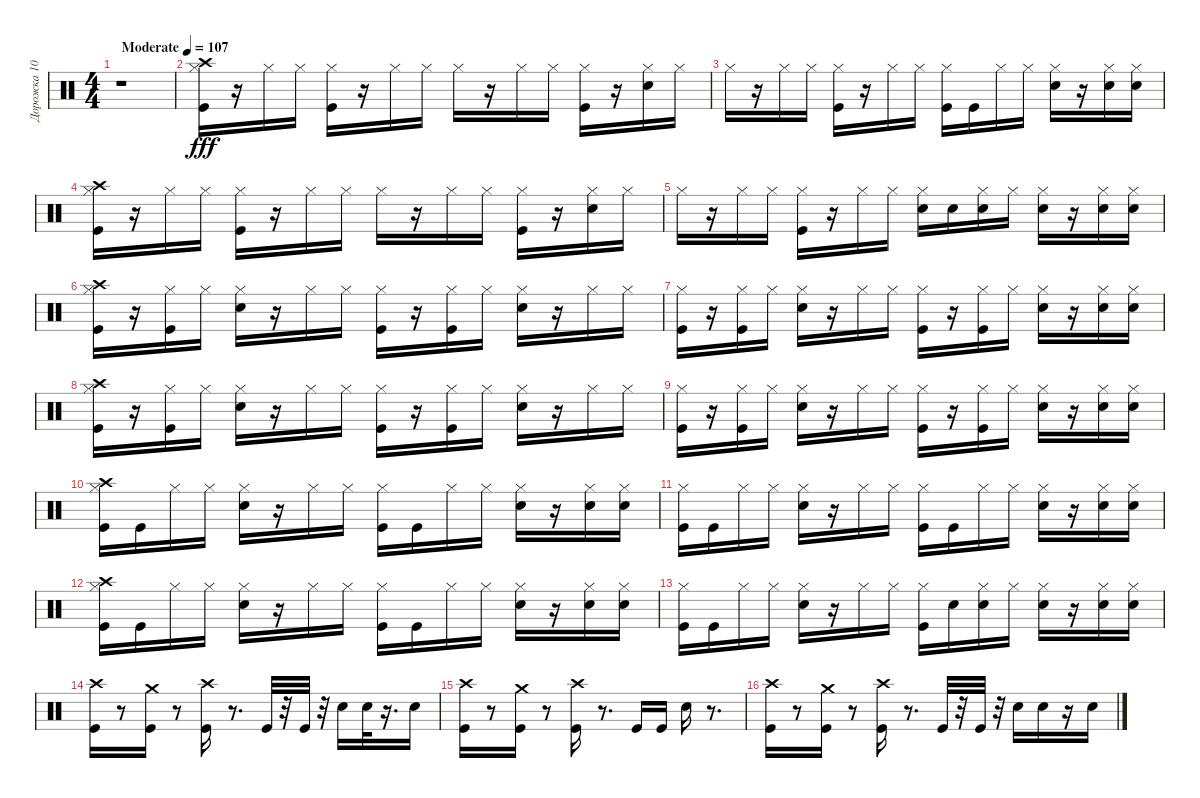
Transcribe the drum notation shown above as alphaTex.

\track ("Дорожка 10" "Дорожка 10") {instrument percussion}
\staff {score}
\articulation defaults
\ts (4 4)
\tempo (107 "Moderate")
\clef neutral
\ks c
r.1{dy fff} |
("Hi-Hat (closed)" "Crash high (hit)" "Kick (hit)").16 r.16 "Hi-Hat (closed)".16 "Hi-Hat (closed)".16 ("Kick (hit)" "Hi-Hat (closed)").16 r.16 "Hi-Hat (closed)".16 "Hi-Hat (closed)".16 "Hi-Hat (closed)".16 r.16 "Hi-Hat (closed)".16 "Hi-Hat (closed)".16 ("Hi-Hat (closed)" "Kick (hit)").16 r.16 ("Electric Snare (hit)" "Hi-Hat (closed)").16 "Hi-Hat (closed)".16 |
"Hi-Hat (closed)".16 r.16 "Hi-Hat (closed)".16 "Hi-Hat (closed)".16 ("Hi-Hat (closed)" "Kick (hit)").16 r.16 "Hi-Hat (closed)".16 "Hi-Hat (closed)".16 ("Hi-Hat (closed)" "Kick (hit)").16 "Kick (hit)".16 "Hi-Hat (closed)".16 "Hi-Hat (closed)".16 ("Electric Snare (hit)" "Hi-Hat (closed)").16 r.16 ("Electric Snare (hit)" "Hi-Hat (closed)").16 ("Hi-Hat (closed)" "Electric Snare (hit)").16 |
("Kick (hit)" "Hi-Hat (closed)" "Crash high (hit)").16 r.16 "Hi-Hat (closed)".16 "Hi-Hat (closed)".16 ("Kick (hit)" "Hi-Hat (closed)").16 r.16 "Hi-Hat (closed)".16 "Hi-Hat (closed)".16 "Hi-Hat (closed)".16 r.16 "Hi-Hat (closed)".16 "Hi-Hat (closed)".16 ("Kick (hit)" "Hi-Hat (closed)").16 r.16 ("Electric Snare (hit)" "Hi-Hat (closed)").16 "Hi-Hat (closed)".16 |
"Hi-Hat (closed)".16 r.16 "Hi-Hat (closed)".16 "Hi-Hat (closed)".16 ("Kick (hit)" "Hi-Hat (closed)").16 r.16 "Hi-Hat (closed)".16 "Hi-Hat (closed)".16 ("Hi-Hat (closed)" "Electric Snare (hit)").16 "Electric Snare (hit)".16 ("Hi-Hat (closed)" "Electric Snare (hit)").16 "Hi-Hat (closed)".16 ("Electric Snare (hit)" "Hi-Hat (closed)").16 r.16 ("Hi-Hat (closed)" "Electric Snare (hit)").16 ("Hi-Hat (closed)" "Electric Snare (hit)").16 |
("Kick (hit)" "Crash high (hit)" "Hi-Hat (closed)").16 r.16 ("Hi-Hat (closed)" "Kick (hit)").16 "Hi-Hat (closed)".16 ("Hi-Hat (closed)" "Electric Snare (hit)").16 r.16 "Hi-Hat (closed)".16 "Hi-Hat (closed)".16 ("Kick (hit)" "Hi-Hat (closed)").16 r.16 ("Hi-Hat (closed)" "Kick (hit)").16 "Hi-Hat (closed)".16 ("Electric Snare (hit)" "Hi-Hat (closed)").16 r.16 "Hi-Hat (closed)".16 "Hi-Hat (closed)".16 |
("Hi-Hat (closed)" "Kick (hit)").16 r.16 ("Kick (hit)" "Hi-Hat (closed)").16 "Hi-Hat (closed)".16 ("Electric Snare (hit)" "Hi-Hat (closed)").16 r.16 "Hi-Hat (closed)".16 "Hi-Hat (closed)".16 ("Hi-Hat (closed)" "Kick (hit)").16 r.16 ("Hi-Hat (closed)" "Kick (hit)").16 "Hi-Hat (closed)".16 ("Electric Snare (hit)" "Hi-Hat (closed)").16 r.16 ("Electric Snare (hit)" "Hi-Hat (closed)").16 ("Electric Snare (hit)" "Hi-Hat (closed)").16 |
("Kick (hit)" "Hi-Hat (closed)" "Crash high (hit)").16 r.16 ("Kick (hit)" "Hi-Hat (closed)").16 "Hi-Hat (closed)".16 ("Electric Snare (hit)" "Hi-Hat (closed)").16 r.16 "Hi-Hat (closed)".16 "Hi-Hat (closed)".16 ("Hi-Hat (closed)" "Kick (hit)").16 r.16 ("Hi-Hat (closed)" "Kick (hit)").16 "Hi-Hat (closed)".16 ("Hi-Hat (closed)" "Electric Snare (hit)").16 r.16 "Hi-Hat (closed)".16 "Hi-Hat (closed)".16 |
("Hi-Hat (closed)" "Kick (hit)").16 r.16 ("Kick (hit)" "Hi-Hat (closed)").16 "Hi-Hat (closed)".16 ("Hi-Hat (closed)" "Electric Snare (hit)").16 r.16 "Hi-Hat (closed)".16 "Hi-Hat (closed)".16 ("Kick (hit)" "Hi-Hat (closed)").16 r.16 ("Hi-Hat (closed)" "Kick (hit)").16 "Hi-Hat (closed)".16 ("Hi-Hat (closed)" "Electric Snare (hit)").16 r.16 ("Electric Snare (hit)" "Hi-Hat (closed)").16 ("Hi-Hat (closed)" "Electric Snare (hit)").16 |
("Hi-Hat (closed)" "Kick (hit)" "Crash high (hit)").16 "Kick (hit)".16 "Hi-Hat (closed)".16 "Hi-Hat (closed)".16 ("Hi-Hat (closed)" "Electric Snare (hit)").16 r.16 "Hi-Hat (closed)".16 "Hi-Hat (closed)".16 ("Hi-Hat (closed)" "Kick (hit)").16 "Kick (hit)".16 "Hi-Hat (closed)".16 "Hi-Hat (closed)".16 ("Electric Snare (hit)" "Hi-Hat (closed)").16 r.16 ("Hi-Hat (closed)" "Electric Snare (hit)").16 ("Hi-Hat (closed)" "Electric Snare (hit)").16 |
("Kick (hit)" "Hi-Hat (closed)").16 "Kick (hit)".16 "Hi-Hat (closed)".16 "Hi-Hat (closed)".16 ("Electric Snare (hit)" "Hi-Hat (closed)").16 r.16 "Hi-Hat (closed)".16 "Hi-Hat (closed)".16 ("Kick (hit)" "Hi-Hat (closed)").16 "Kick (hit)".16 "Hi-Hat (closed)".16 "Hi-Hat (closed)".16 ("Electric Snare (hit)" "Hi-Hat (closed)").16 r.16 ("Hi-Hat (closed)" "Electric Snare (hit)").16 ("Hi-Hat (closed)" "Electric Snare (hit)").16 |
("Kick (hit)" "Hi-Hat (closed)" "Crash high (hit)").16 "Kick (hit)".16 "Hi-Hat (closed)".16 "Hi-Hat (closed)".16 ("Electric Snare (hit)" "Hi-Hat (closed)").16 r.16 "Hi-Hat (closed)".16 "Hi-Hat (closed)".16 ("Hi-Hat (closed)" "Kick (hit)").16 "Kick (hit)".16 "Hi-Hat (closed)".16 "Hi-Hat (closed)".16 ("Electric Snare (hit)" "Hi-Hat (closed)").16 r.16 ("Hi-Hat (closed)" "Electric Snare (hit)").16 ("Hi-Hat (closed)" "Electric Snare (hit)").16 |
("Kick (hit)" "Hi-Hat (closed)").16 "Kick (hit)".16 "Hi-Hat (closed)".16 "Hi-Hat (closed)".16 ("Hi-Hat (closed)" "Electric Snare (hit)").16 r.16 "Hi-Hat (closed)".16 "Hi-Hat (closed)".16 ("Kick (hit)" "Hi-Hat (closed)").16 "Electric Snare (hit)".16 ("Hi-Hat (closed)" "Electric Snare (hit)").16 "Hi-Hat (closed)".16 ("Hi-Hat (closed)" "Electric Snare (hit)").16 r.16 ("Electric Snare (hit)" "Hi-Hat (closed)").16 ("Electric Snare (hit)" "Hi-Hat (closed)").16 |
("Kick (hit)" "Crash high (hit)").16 r.8 ("Kick (hit)" "Crash medium (hit)").16 r.8 ("Kick (hit)" "Crash high (hit)").16 r.8{d} "Kick (hit)".32 r.32 "Kick (hit)".32 r.32 "Electric Snare (hit)".16 "Electric Snare (hit)".32 r.16{d} "Electric Snare (hit)".16 |
("Kick (hit)" "Crash high (hit)").16 r.8 ("Crash medium (hit)" "Kick (hit)").16 r.8 ("Kick (hit)" "Crash high (hit)").16 r.8{d} "Kick (hit)".16 "Kick (hit)".16 "Electric Snare (hit)".16 r.8{d} |
("Crash high (hit)" "Kick (hit)").16 r.8 ("Crash medium (hit)" "Kick (hit)").16 r.8 ("Crash high (hit)" "Kick (hit)").16 r.8{d} "Kick (hit)".32 r.32 "Kick (hit)".32 r.32 "Electric Snare (hit)".16 "Electric Snare (hit)".16 r.16 "Electric Snare (hit)".16
